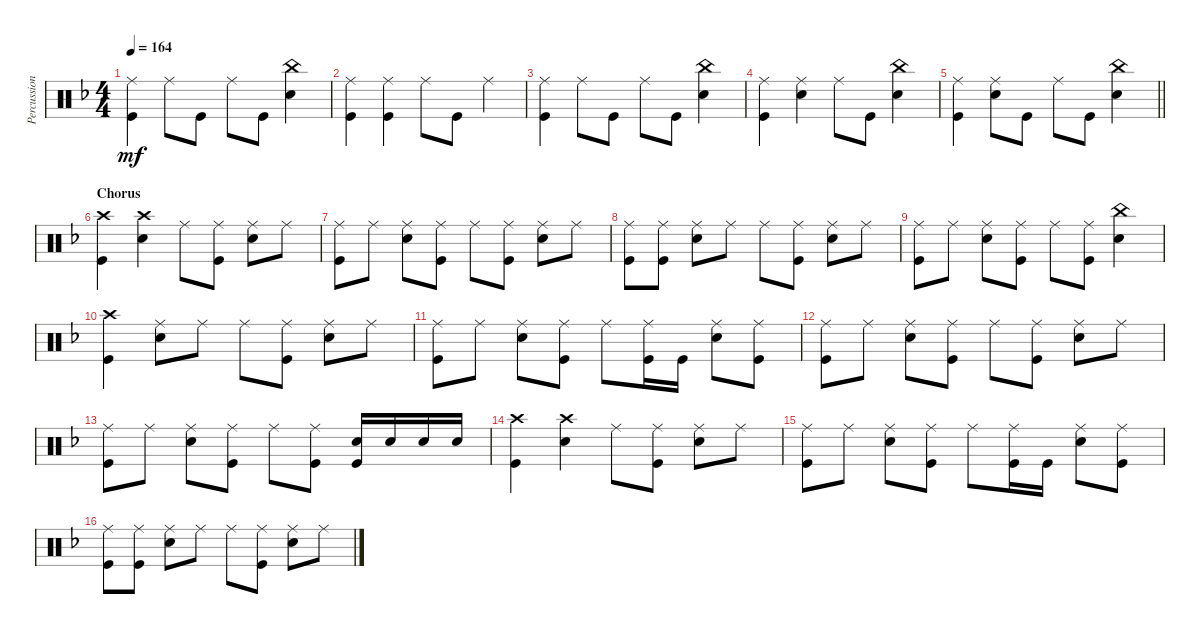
\track ("Percussions" "Percussion") {instrument percussion}
\staff {score}
\articulation defaults
\ts (4 4)
\tempo 164
\clef neutral
\ks dminor
("Ride (middle)" "Kick (hit)").4{dy mf} "Ride (middle)".8 "Kick (hit)".8 "Ride (middle)".8 "Kick (hit)".8 ("China (hit)" "Electric Snare (hit)").4 |
("Ride (middle)" "Kick (hit)").4 ("Ride (middle)" "Kick (hit)").4 "Ride (middle)".8 "Kick (hit)".8 "Ride (middle)".4 |
("Ride (middle)" "Kick (hit)").4 "Ride (middle)".8 "Kick (hit)".8 "Ride (middle)".8 "Kick (hit)".8 ("China (hit)" "Electric Snare (hit)").4 |
("Ride (middle)" "Kick (hit)").4 ("Ride (middle)" "Electric Snare (hit)").4 "Ride (middle)".8 "Kick (hit)".8 ("China (hit)" "Electric Snare (hit)").4 |
\barLineRight lightlight
("Ride (middle)" "Kick (hit)").4 ("Ride (middle)" "Electric Snare (hit)").8 "Kick (hit)".8 "Ride (middle)".8 "Kick (hit)".8 ("China (hit)" "Electric Snare (hit)").4 |
\section ("" "Chorus")
("Crash high (hit)" "Kick (hit)").4 ("Crash high (hit)" "Electric Snare (hit)").4 "Ride (middle)".8 ("Ride (middle)" "Kick (hit)").8 ("Ride (middle)" "Electric Snare (hit)").8 "Ride (middle)".8 |
("Ride (middle)" "Kick (hit)").8 "Ride (middle)".8 ("Ride (middle)" "Electric Snare (hit)").8 ("Ride (middle)" "Kick (hit)").8 "Ride (middle)".8 ("Ride (middle)" "Kick (hit)").8 ("Ride (middle)" "Electric Snare (hit)").8 "Ride (middle)".8 |
("Ride (middle)" "Kick (hit)").8 ("Ride (middle)" "Kick (hit)").8 ("Ride (middle)" "Electric Snare (hit)").8 "Ride (middle)".8 "Ride (middle)".8 ("Ride (middle)" "Kick (hit)").8 ("Ride (middle)" "Electric Snare (hit)").8 "Ride (middle)".8 |
("Ride (middle)" "Kick (hit)").8 "Ride (middle)".8 ("Ride (middle)" "Electric Snare (hit)").8 ("Ride (middle)" "Kick (hit)").8 "Ride (middle)".8 ("Ride (middle)" "Kick (hit)").8 ("China (hit)" "Electric Snare (hit)").4 |
("Crash high (hit)" "Kick (hit)").4 ("Ride (middle)" "Electric Snare (hit)").8 "Ride (middle)".8 "Ride (middle)".8 ("Ride (middle)" "Kick (hit)").8 ("Ride (middle)" "Electric Snare (hit)").8 "Ride (middle)".8 |
("Ride (middle)" "Kick (hit)").8 "Ride (middle)".8 ("Ride (middle)" "Electric Snare (hit)").8 ("Ride (middle)" "Kick (hit)").8 "Ride (middle)".8 ("Ride (middle)" "Kick (hit)").16 "Kick (hit)".16 ("Ride (middle)" "Electric Snare (hit)").8 ("Ride (middle)" "Kick (hit)").8 |
("Ride (middle)" "Kick (hit)").8 "Ride (middle)".8 ("Ride (middle)" "Electric Snare (hit)").8 ("Ride (middle)" "Kick (hit)").8 "Ride (middle)".8 ("Ride (middle)" "Kick (hit)").8 ("Ride (middle)" "Electric Snare (hit)").8 "Ride (middle)".8 |
("Ride (middle)" "Kick (hit)").8 "Ride (middle)".8 ("Ride (middle)" "Electric Snare (hit)").8 ("Ride (middle)" "Kick (hit)").8 "Ride (middle)".8 ("Ride (middle)" "Kick (hit)").8 ("Electric Snare (hit)" "Kick (hit)").16 "Electric Snare (hit)".16 "Electric Snare (hit)".16 "Electric Snare (hit)".16 |
("Crash high (hit)" "Kick (hit)").4 ("Crash high (hit)" "Electric Snare (hit)").4 "Ride (middle)".8 ("Ride (middle)" "Kick (hit)").8 ("Ride (middle)" "Electric Snare (hit)").8 "Ride (middle)".8 |
("Ride (middle)" "Kick (hit)").8 "Ride (middle)".8 ("Ride (middle)" "Electric Snare (hit)").8 ("Ride (middle)" "Kick (hit)").8 "Ride (middle)".8 ("Ride (middle)" "Kick (hit)").16 "Kick (hit)".16 ("Ride (middle)" "Electric Snare (hit)").8 ("Ride (middle)" "Kick (hit)").8 |
("Ride (middle)" "Kick (hit)").8 ("Ride (middle)" "Kick (hit)").8 ("Ride (middle)" "Electric Snare (hit)").8 "Ride (middle)".8 "Ride (middle)".8 ("Ride (middle)" "Kick (hit)").8 ("Ride (middle)" "Electric Snare (hit)").8 "Ride (middle)".8
